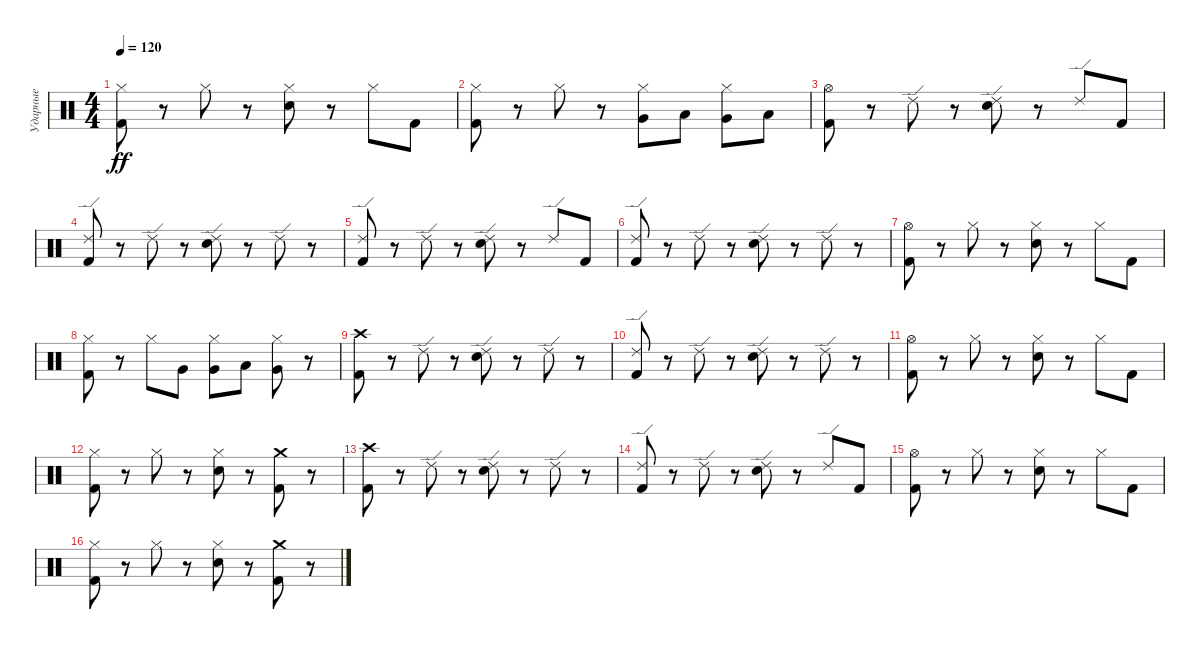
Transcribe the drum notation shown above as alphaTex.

\track ("Ударные" "Ударные") {instrument percussion}
\staff {score}
\articulation defaults
\ts (4 4)
\tempo 120
\clef neutral
\ks c
("Hi-Hat (closed)" "Kick (hit) 2").8{dy ff} r.8 "Hi-Hat (closed)".8 r.8 ("Hi-Hat (closed)" "Snare (hit) 2").8 r.8 "Hi-Hat (closed)".8 "Kick (hit) 2".8 |
("Hi-Hat (closed)" "Kick (hit) 2").8 r.8 "Hi-Hat (closed)".8 r.8 ("Hi-Hat (closed)" "Very Low Tom (hit)").8 "Low Floor Tom (hit)".8 ("Hi-Hat (closed)" "Very Low Tom (hit)").8 "Low Floor Tom (hit)".8 |
("Hi-Hat (open)" "Kick (hit) 2").8 r.8 "Ride (edge) 2".8 r.8 ("Ride (edge) 2" "Snare (hit) 2").8 r.8 "Ride (edge) 2".8 "Kick (hit) 2".8 |
("Ride (edge) 2" "Kick (hit) 2").8 r.8 "Ride (edge) 2".8 r.8 ("Ride (edge) 2" "Snare (hit) 2").8 r.8 "Ride (edge) 2".8 r.8 |
("Ride (edge) 2" "Kick (hit) 2").8 r.8 "Ride (edge) 2".8 r.8 ("Ride (edge) 2" "Snare (hit) 2").8 r.8 "Ride (edge) 2".8 "Kick (hit) 2".8 |
("Ride (edge) 2" "Kick (hit) 2").8 r.8 "Ride (edge) 2".8 r.8 ("Ride (edge) 2" "Snare (hit) 2").8 r.8 "Ride (edge) 2".8 r.8 |
("Hi-Hat (open)" "Kick (hit) 2").8 r.8 "Hi-Hat (closed)".8 r.8 ("Hi-Hat (closed)" "Snare (hit) 2").8 r.8 "Hi-Hat (closed)".8 "Kick (hit) 2".8 |
("Hi-Hat (closed)" "Kick (hit) 2").8 r.8 "Hi-Hat (closed)".8 "Very Low Tom (hit)".8 ("Hi-Hat (closed)" "Very Low Tom (hit)").8 "Low Floor Tom (hit)".8 ("Hi-Hat (closed)" "Very Low Tom (hit)").8 r.8 |
("Crash high (hit)" "Kick (hit) 2").8 r.8 "Ride (edge) 2".8 r.8 ("Ride (edge) 2" "Snare (hit) 2").8 r.8 "Ride (edge) 2".8 r.8 |
("Ride (edge) 2" "Kick (hit) 2").8 r.8 "Ride (edge) 2".8 r.8 ("Ride (edge) 2" "Snare (hit) 2").8 r.8 "Ride (edge) 2".8 r.8 |
("Hi-Hat (open)" "Kick (hit) 2").8 r.8 "Hi-Hat (closed)".8 r.8 ("Hi-Hat (closed)" "Snare (hit) 2").8 r.8 "Hi-Hat (closed)".8 "Kick (hit) 2".8 |
("Hi-Hat (closed)" "Kick (hit) 2").8 r.8 "Hi-Hat (closed)".8 r.8 ("Hi-Hat (closed)" "Snare (hit) 2").8 r.8 ("Crash medium (hit)" "Kick (hit) 2").8 r.8 |
("Crash high (hit)" "Kick (hit) 2").8 r.8 "Ride (edge) 2".8 r.8 ("Ride (edge) 2" "Snare (hit) 2").8 r.8 "Ride (edge) 2".8 r.8 |
("Ride (edge) 2" "Kick (hit) 2").8 r.8 "Ride (edge) 2".8 r.8 ("Ride (edge) 2" "Snare (hit) 2").8 r.8 "Ride (edge) 2".8 "Kick (hit) 2".8 |
("Hi-Hat (open)" "Kick (hit) 2").8 r.8 "Hi-Hat (closed)".8 r.8 ("Hi-Hat (closed)" "Snare (hit) 2").8 r.8 "Hi-Hat (closed)".8 "Kick (hit) 2".8 |
("Hi-Hat (closed)" "Kick (hit) 2").8 r.8 "Hi-Hat (closed)".8 r.8 ("Hi-Hat (closed)" "Snare (hit) 2").8 r.8 ("Crash medium (hit)" "Kick (hit) 2").8 r.8
